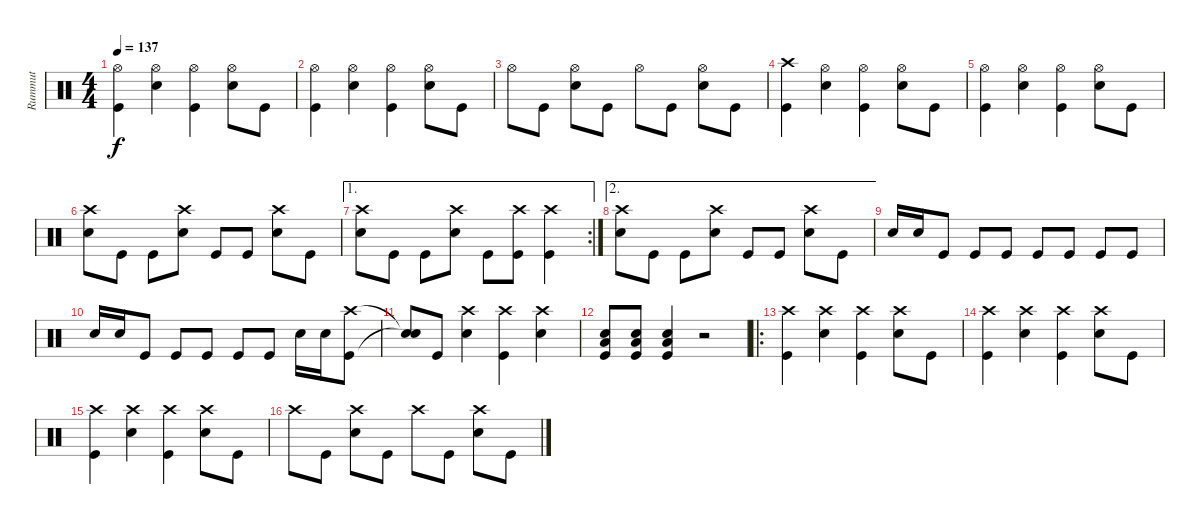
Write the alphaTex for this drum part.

\track ("Rummut" "Rummut") {instrument percussion}
\staff {score}
\articulation defaults
\ts (4 4)
\tempo 137
\clef neutral
\ks c
("Kick (hit)" "Hi-Hat (open)").4{dy f} ("Snare (hit) 2" "Hi-Hat (open)").4 ("Kick (hit)" "Hi-Hat (open)").4 ("Snare (hit) 2" "Hi-Hat (open)").8 "Kick (hit)".8 |
("Kick (hit)" "Hi-Hat (open)").4 ("Snare (hit) 2" "Hi-Hat (open)").4 ("Kick (hit)" "Hi-Hat (open)").4 ("Snare (hit) 2" "Hi-Hat (open)").8 "Kick (hit)".8 |
"Hi-Hat (open)".8 "Kick (hit)".8 ("Snare (hit) 2" "Hi-Hat (open)").8 "Kick (hit)".8 "Hi-Hat (open)".8 "Kick (hit)".8 ("Snare (hit) 2" "Hi-Hat (open)").8 "Kick (hit)".8 |
("Kick (hit)" "Crash high (hit)").4 ("Snare (hit) 2" "Hi-Hat (open)").4 ("Kick (hit)" "Hi-Hat (open)").4 ("Snare (hit) 2" "Hi-Hat (open)").8 "Kick (hit)".8 |
("Kick (hit)" "Hi-Hat (open)").4 ("Snare (hit) 2" "Hi-Hat (open)").4 ("Kick (hit)" "Hi-Hat (open)").4 ("Snare (hit) 2" "Hi-Hat (open)").8 "Kick (hit)".8 |
("Snare (hit) 2" "Crash high (hit)").8 "Kick (hit)".8 "Kick (hit)".8 ("Snare (hit) 2" "Crash high (hit)").8 "Kick (hit)".8 "Kick (hit)".8 ("Snare (hit) 2" "Crash high (hit)").8 "Kick (hit)".8 |
\ae 1
\rc 2
("Snare (hit) 2" "Crash high (hit)").8 "Kick (hit)".8 "Kick (hit)".8 ("Snare (hit) 2" "Crash high (hit)").8 "Kick (hit)".8 ("Kick (hit)" "Crash high (hit)").8 ("Kick (hit)" "Crash high (hit)").4 |
\ae 2
("Snare (hit) 2" "Crash high (hit)").8 "Kick (hit)".8 "Kick (hit)".8 ("Snare (hit) 2" "Crash high (hit)").8 "Kick (hit)".8 "Kick (hit)".8 ("Snare (hit) 2" "Crash high (hit)").8 "Kick (hit)".8 |
"Snare (hit) 2".16 "Snare (hit) 2".16 "Kick (hit)".8 "Kick (hit)".8 "Kick (hit)".8 "Kick (hit)".8 "Kick (hit)".8 "Kick (hit)".8 "Kick (hit)".8 |
"Snare (hit) 2".16 "Snare (hit) 2".16 "Kick (hit)".8 "Kick (hit)".8 "Kick (hit)".8 "Kick (hit)".8 "Kick (hit)".8 "Snare (hit) 2".16 "Snare (hit) 2".16 ("Kick (hit)" "Crash high (hit)").8 |
("Snare (hit)"{t} "Snare (hit)"{t}).8 "Kick (hit)".8 ("Snare (hit) 2" "Crash high (hit)").4 ("Kick (hit)" "Crash high (hit)").4 ("Snare (hit) 2" "Crash high (hit)").4 |
("Kick (hit)" "Snare (hit) 2" "Low Floor Tom (hit)").8 ("Kick (hit)" "Snare (hit) 2" "Low Floor Tom (hit)").8 ("Kick (hit)" "Snare (hit) 2" "Low Floor Tom (hit)").4 r.2 |
\ro
("Kick (hit)" "Crash high (hit)").4 ("Snare (hit) 2" "Crash high (hit)").4 ("Kick (hit)" "Crash high (hit)").4 ("Snare (hit) 2" "Crash high (hit)").8 "Kick (hit)".8 |
("Kick (hit)" "Crash high (hit)").4 ("Snare (hit) 2" "Crash high (hit)").4 ("Kick (hit)" "Crash high (hit)").4 ("Snare (hit) 2" "Crash high (hit)").8 "Kick (hit)".8 |
("Kick (hit)" "Crash high (hit)").4 ("Snare (hit) 2" "Crash high (hit)").4 ("Kick (hit)" "Crash high (hit)").4 ("Snare (hit) 2" "Crash high (hit)").8 "Kick (hit)".8 |
"Crash high (hit)".8 "Kick (hit)".8 ("Snare (hit) 2" "Crash high (hit)").8 "Kick (hit)".8 "Crash high (hit)".8 "Kick (hit)".8 ("Snare (hit) 2" "Crash high (hit)").8 "Kick (hit)".8
